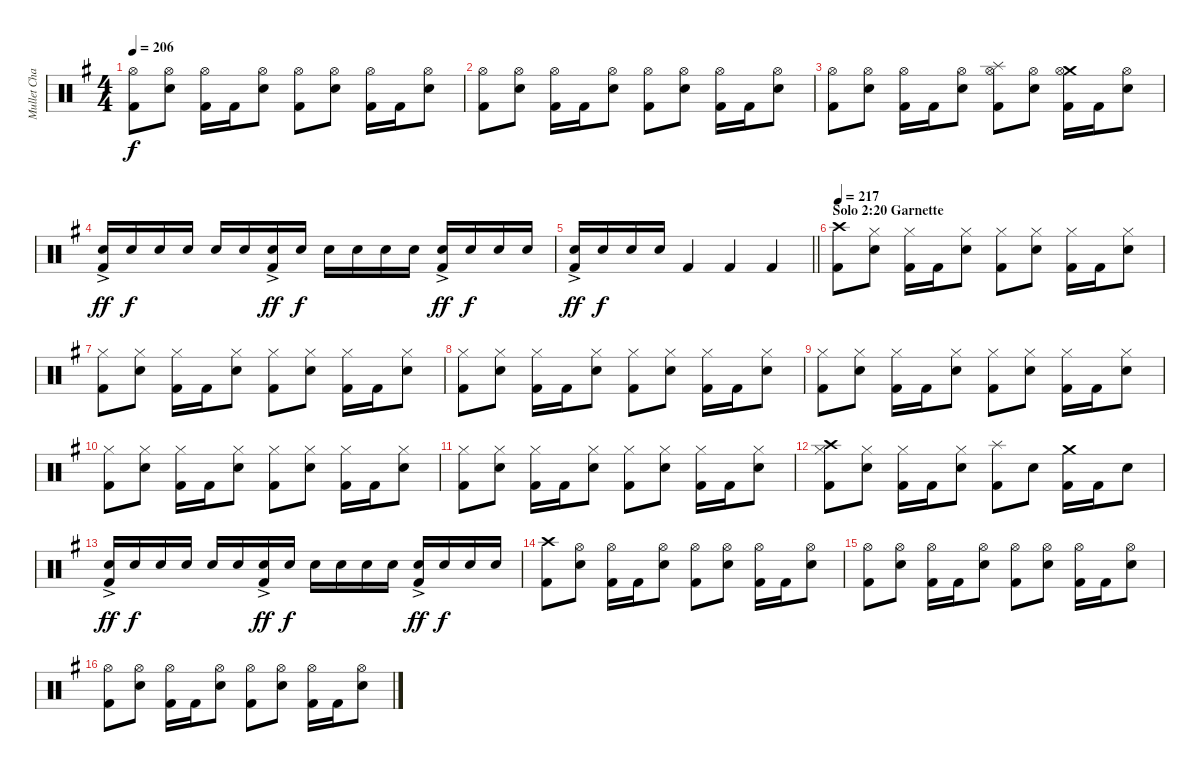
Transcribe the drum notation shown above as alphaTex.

\track ("Mullet Chad" "Mullet Cha") {instrument percussion}
\staff {score}
\articulation defaults
\ts (4 4)
\tempo 206
\clef neutral
\ks g
("Hi-Hat (open)" "Kick (hit) 2").8{dy f} ("Hi-Hat (open)" "Snare (hit) 2").8 ("Hi-Hat (open)" "Kick (hit) 2").16 "Kick (hit) 2".16 ("Hi-Hat (open)" "Snare (hit) 2").8 ("Hi-Hat (open)" "Kick (hit) 2").8 ("Hi-Hat (open)" "Snare (hit) 2").8 ("Hi-Hat (open)" "Kick (hit) 2").16 "Kick (hit) 2".16 ("Hi-Hat (open)" "Snare (hit) 2").8 |
("Hi-Hat (open)" "Kick (hit) 2").8 ("Hi-Hat (open)" "Snare (hit) 2").8 ("Hi-Hat (open)" "Kick (hit) 2").16 "Kick (hit) 2".16 ("Hi-Hat (open)" "Snare (hit) 2").8 ("Hi-Hat (open)" "Kick (hit) 2").8 ("Hi-Hat (open)" "Snare (hit) 2").8 ("Hi-Hat (open)" "Kick (hit) 2").16 "Kick (hit) 2".16 ("Hi-Hat (open)" "Snare (hit) 2").8 |
("Hi-Hat (open)" "Kick (hit) 2").8 ("Hi-Hat (open)" "Snare (hit) 2").8 ("Hi-Hat (open)" "Kick (hit) 2").16 "Kick (hit) 2".16 ("Hi-Hat (open)" "Snare (hit) 2").8 ("Splash (hit)" "Hi-Hat (open)" "Kick (hit) 2").8 ("Hi-Hat (open)" "Snare (hit) 2").8 ("Crash medium (hit)" "Hi-Hat (open)" "Kick (hit) 2").16 "Kick (hit) 2".16 ("Hi-Hat (open)" "Snare (hit) 2").8 |
("Snare (hit) 2"{ac} "Kick (hit) 2").16{dy ff} "Snare (hit) 2".16{dy f} "Snare (hit) 2".16 "Snare (hit) 2".16 "Snare (hit) 2".16 "Snare (hit) 2".16 ("Snare (hit) 2"{ac} "Kick (hit) 2").16{dy ff} "Snare (hit) 2".16{dy f} "Snare (hit) 2".16 "Snare (hit) 2".16 "Snare (hit) 2".16 "Snare (hit) 2".16 ("Snare (hit) 2"{ac} "Kick (hit) 2").16{dy ff} "Snare (hit) 2".16{dy f} "Snare (hit) 2".16 "Snare (hit) 2".16 |
\barLineRight lightlight
("Snare (hit) 2"{ac} "Kick (hit) 2").16{dy ff} "Snare (hit) 2".16{dy f} "Snare (hit) 2".16 "Snare (hit) 2".16 "Kick (hit) 2".4 "Kick (hit) 2".4 "Kick (hit) 2".4 |
\section ("" "Solo 2:20 Garnette")
\tempo 217
("Crash high (hit)" "Kick (hit) 2").8 ("Hi-Hat (closed)" "Snare (hit) 2").8 ("Hi-Hat (closed)" "Kick (hit) 2").16 "Kick (hit) 2".16 ("Hi-Hat (closed)" "Snare (hit) 2").8 ("Hi-Hat (closed)" "Kick (hit) 2").8 ("Hi-Hat (closed)" "Snare (hit) 2").8 ("Hi-Hat (closed)" "Kick (hit) 2").16 "Kick (hit) 2".16 ("Hi-Hat (closed)" "Snare (hit) 2").8 |
("Hi-Hat (closed)" "Kick (hit) 2").8 ("Hi-Hat (closed)" "Snare (hit) 2").8 ("Hi-Hat (closed)" "Kick (hit) 2").16 "Kick (hit) 2".16 ("Hi-Hat (closed)" "Snare (hit) 2").8 ("Hi-Hat (closed)" "Kick (hit) 2").8 ("Hi-Hat (closed)" "Snare (hit) 2").8 ("Hi-Hat (closed)" "Kick (hit) 2").16 "Kick (hit) 2".16 ("Hi-Hat (closed)" "Snare (hit) 2").8 |
("Hi-Hat (closed)" "Kick (hit) 2").8 ("Hi-Hat (closed)" "Snare (hit) 2").8 ("Hi-Hat (closed)" "Kick (hit) 2").16 "Kick (hit) 2".16 ("Hi-Hat (closed)" "Snare (hit) 2").8 ("Hi-Hat (closed)" "Kick (hit) 2").8 ("Hi-Hat (closed)" "Snare (hit) 2").8 ("Hi-Hat (closed)" "Kick (hit) 2").16 "Kick (hit) 2".16 ("Hi-Hat (closed)" "Snare (hit) 2").8 |
("Hi-Hat (closed)" "Kick (hit) 2").8 ("Hi-Hat (closed)" "Snare (hit) 2").8 ("Hi-Hat (closed)" "Kick (hit) 2").16 "Kick (hit) 2".16 ("Hi-Hat (closed)" "Snare (hit) 2").8 ("Hi-Hat (closed)" "Kick (hit) 2").8 ("Hi-Hat (closed)" "Snare (hit) 2").8 ("Hi-Hat (closed)" "Kick (hit) 2").16 "Kick (hit) 2".16 ("Hi-Hat (closed)" "Snare (hit) 2").8 |
("Hi-Hat (closed)" "Kick (hit) 2").8 ("Hi-Hat (closed)" "Snare (hit) 2").8 ("Hi-Hat (closed)" "Kick (hit) 2").16 "Kick (hit) 2".16 ("Hi-Hat (closed)" "Snare (hit) 2").8 ("Hi-Hat (closed)" "Kick (hit) 2").8 ("Hi-Hat (closed)" "Snare (hit) 2").8 ("Hi-Hat (closed)" "Kick (hit) 2").16 "Kick (hit) 2".16 ("Hi-Hat (closed)" "Snare (hit) 2").8 |
("Hi-Hat (closed)" "Kick (hit) 2").8 ("Hi-Hat (closed)" "Snare (hit) 2").8 ("Hi-Hat (closed)" "Kick (hit) 2").16 "Kick (hit) 2".16 ("Hi-Hat (closed)" "Snare (hit) 2").8 ("Hi-Hat (closed)" "Kick (hit) 2").8 ("Hi-Hat (closed)" "Snare (hit) 2").8 ("Hi-Hat (closed)" "Kick (hit) 2").16 "Kick (hit) 2".16 ("Hi-Hat (closed)" "Snare (hit) 2").8 |
("Crash high (hit)" "Hi-Hat (closed)" "Kick (hit) 2").8 ("Hi-Hat (closed)" "Snare (hit) 2").8 ("Hi-Hat (closed)" "Kick (hit) 2").16 "Kick (hit) 2".16 ("Hi-Hat (closed)" "Snare (hit) 2").8 ("Splash (hit)" "Kick (hit) 2").8 "Snare (hit) 2".8 ("Crash medium (hit)" "Kick (hit) 2").16 "Kick (hit) 2".16 "Snare (hit) 2".8 |
("Snare (hit) 2"{ac} "Kick (hit) 2").16{dy ff} "Snare (hit) 2".16{dy f} "Snare (hit) 2".16 "Snare (hit) 2".16 "Snare (hit) 2".16 "Snare (hit) 2".16 ("Snare (hit) 2"{ac} "Kick (hit) 2").16{dy ff} "Snare (hit) 2".16{dy f} "Snare (hit) 2".16 "Snare (hit) 2".16 "Snare (hit) 2".16 "Snare (hit) 2".16 ("Snare (hit) 2"{ac} "Kick (hit) 2").16{dy ff} "Snare (hit) 2".16{dy f} "Snare (hit) 2".16 "Snare (hit) 2".16 |
("Crash high (hit)" "Kick (hit) 2").8 ("Hi-Hat (open)" "Snare (hit) 2").8 ("Hi-Hat (open)" "Kick (hit) 2").16 "Kick (hit) 2".16 ("Hi-Hat (open)" "Snare (hit) 2").8 ("Hi-Hat (open)" "Kick (hit) 2").8 ("Hi-Hat (open)" "Snare (hit) 2").8 ("Hi-Hat (open)" "Kick (hit) 2").16 "Kick (hit) 2".16 ("Hi-Hat (open)" "Snare (hit) 2").8 |
("Hi-Hat (open)" "Kick (hit) 2").8 ("Hi-Hat (open)" "Snare (hit) 2").8 ("Hi-Hat (open)" "Kick (hit) 2").16 "Kick (hit) 2".16 ("Hi-Hat (open)" "Snare (hit) 2").8 ("Hi-Hat (open)" "Kick (hit) 2").8 ("Hi-Hat (open)" "Snare (hit) 2").8 ("Hi-Hat (open)" "Kick (hit) 2").16 "Kick (hit) 2".16 ("Hi-Hat (open)" "Snare (hit) 2").8 |
("Hi-Hat (open)" "Kick (hit) 2").8 ("Hi-Hat (open)" "Snare (hit) 2").8 ("Hi-Hat (open)" "Kick (hit) 2").16 "Kick (hit) 2".16 ("Hi-Hat (open)" "Snare (hit) 2").8 ("Hi-Hat (open)" "Kick (hit) 2").8 ("Hi-Hat (open)" "Snare (hit) 2").8 ("Hi-Hat (open)" "Kick (hit) 2").16 "Kick (hit) 2".16 ("Hi-Hat (open)" "Snare (hit) 2").8
